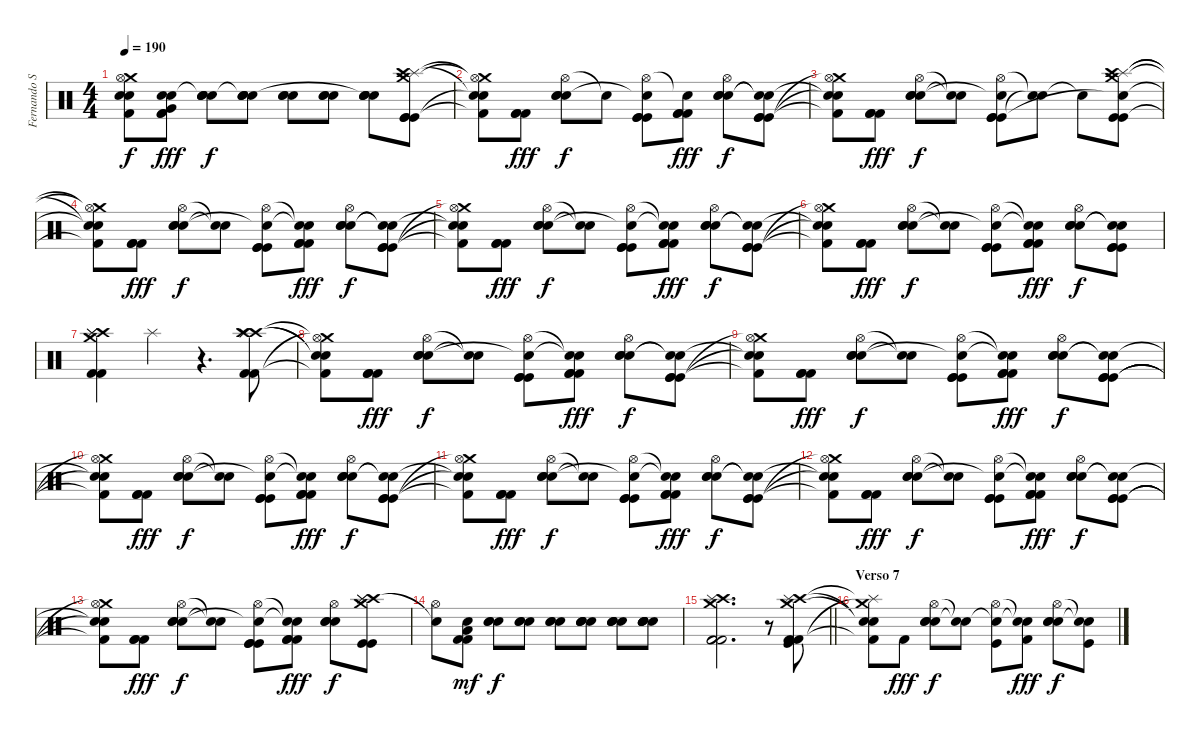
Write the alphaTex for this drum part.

\track ("Fernando Sarcella" "Fernando S") {instrument percussion}
\staff {score}
\articulation defaults
\ts (4 4)
\tempo 190
\clef neutral
\ks c
("Crash medium (hit)"{t} "Hi-Hat (open)" "Snare (hit)"{t} "Snare (hit)"{t} "Kick (hit) 2"{t}).8{dy f} ("Kick (hit) 2" "Electric Snare (hit)" "Very Low Tom (hit)" "Electric Snare (hit)" "Kick (hit) 2").8{dy fff} ("Electric Snare (hit)" "Electric Snare (hit)" "Electric Snare (hit)" "Snare (hit)"{t}).8{dy f} ("Electric Snare (hit)" "Electric Snare (hit)" "Electric Snare (hit)" "Snare (hit)"{t}).8 ("Electric Snare (hit)" "Electric Snare (hit)" "Electric Snare (hit)").8 ("Electric Snare (hit)" "Electric Snare (hit)" "Electric Snare (hit)").8 ("Electric Snare (hit)" "Electric Snare (hit)" "Electric Snare (hit)" "Snare (hit)"{t}).8 ("Crash medium (hit)" "Splash (hit)" "Crash high (hit)" "Kick (hit)" "Kick (hit)" "Kick (hit)").8 |
("Crash medium (hit)"{t} "Hi-Hat (open)"{t} "Snare (hit)"{t} "Snare (hit)"{t} "Kick (hit) 2"{t}).8 ("Kick (hit) 2" "Kick (hit) 2" "Kick (hit) 2").8{dy fff} ("Hi-Hat (open)" "Electric Snare (hit)" "Electric Snare (hit)" "Electric Snare (hit)").8{dy f} "Snare (hit)"{t}.8 ("Kick (hit)" "Hi-Hat (open)" "Snare (hit)"{t} "Kick (hit)" "Kick (hit)").8 ("Kick (hit) 2" "Snare (hit)"{t} "Kick (hit) 2" "Kick (hit) 2").8{dy fff} ("Hi-Hat (open)" "Electric Snare (hit)" "Electric Snare (hit)" "Electric Snare (hit)").8{dy f} ("Kick (hit)" "Snare (hit)"{t} "Snare (hit)"{t} "Kick (hit)" "Kick (hit)").8 |
("Crash medium (hit)"{t} "Hi-Hat (open)" "Snare (hit)"{t} "Snare (hit)"{t} "Kick (hit) 2"{t}).8 ("Kick (hit) 2" "Kick (hit) 2" "Kick (hit) 2").8{dy fff} ("Hi-Hat (open)" "Electric Snare (hit)" "Electric Snare (hit)" "Electric Snare (hit)").8{dy f} ("Snare (hit)"{t} "Snare (hit)"{t}).8 ("Kick (hit)" "Hi-Hat (open)" "Snare (hit)"{t} "Kick (hit)" "Kick (hit)").8 ("Snare (hit)"{t} "Snare (hit)"{t}).8 "Snare (hit)"{t}.8 ("Crash medium (hit)" "Splash (hit)" "Crash high (hit)" "Snare (hit)"{t} "Kick (hit)" "Kick (hit)").8 |
("Crash medium (hit)"{t} "Hi-Hat (open)"{t} "Snare (hit)"{t} "Snare (hit)"{t} "Kick (hit) 2"{t}).8 ("Kick (hit) 2" "Kick (hit) 2" "Kick (hit) 2").8{dy fff} ("Hi-Hat (open)" "Electric Snare (hit)" "Electric Snare (hit)" "Electric Snare (hit)").8{dy f} ("Snare (hit)"{t} "Snare (hit)"{t}).8 ("Kick (hit)" "Hi-Hat (open)" "Snare (hit)"{t} "Kick (hit)" "Kick (hit)").8 ("Kick (hit) 2" "Snare (hit)"{t} "Snare (hit)"{t} "Kick (hit) 2" "Kick (hit) 2").8{dy fff} ("Hi-Hat (open)" "Electric Snare (hit)" "Electric Snare (hit)" "Electric Snare (hit)").8{dy f} ("Kick (hit)" "Snare (hit)"{t} "Snare (hit)"{t} "Kick (hit)" "Kick (hit)").8 |
("Crash medium (hit)"{t} "Hi-Hat (open)" "Snare (hit)"{t} "Snare (hit)"{t} "Kick (hit) 2"{t}).8 ("Kick (hit) 2" "Kick (hit) 2" "Kick (hit) 2").8{dy fff} ("Hi-Hat (open)" "Electric Snare (hit)" "Electric Snare (hit)" "Electric Snare (hit)").8{dy f} ("Snare (hit)"{t} "Snare (hit)"{t}).8 ("Kick (hit)" "Hi-Hat (open)" "Snare (hit)"{t} "Kick (hit)" "Kick (hit)").8 ("Kick (hit) 2" "Snare (hit)"{t} "Snare (hit)"{t} "Kick (hit) 2" "Kick (hit) 2").8{dy fff} ("Hi-Hat (open)" "Electric Snare (hit)" "Electric Snare (hit)" "Electric Snare (hit)").8{dy f} ("Kick (hit)" "Snare (hit)"{t} "Snare (hit)"{t} "Kick (hit)" "Kick (hit)").8 |
("Crash medium (hit)"{t} "Hi-Hat (open)" "Snare (hit)"{t} "Snare (hit)"{t} "Kick (hit) 2"{t}).8 ("Kick (hit) 2" "Kick (hit) 2" "Kick (hit) 2").8{dy fff} ("Hi-Hat (open)" "Electric Snare (hit)" "Electric Snare (hit)" "Electric Snare (hit)").8{dy f} ("Snare (hit)"{t} "Snare (hit)"{t}).8 ("Kick (hit)" "Hi-Hat (open)" "Snare (hit)"{t} "Kick (hit)" "Kick (hit)").8 ("Kick (hit) 2" "Snare (hit)"{t} "Snare (hit)"{t} "Kick (hit) 2" "Kick (hit) 2").8{dy fff} ("Hi-Hat (open)" "Electric Snare (hit)" "Electric Snare (hit)" "Electric Snare (hit)").8{dy f} ("Kick (hit)" "Snare (hit)"{t} "Snare (hit)"{t} "Kick (hit)" "Kick (hit)").8 |
("Kick (hit) 2" "Crash high (hit)" "Crash medium (hit)" "Splash (hit)" "Kick (hit) 2" "Splash (hit)").4 "Splash (hit)".4 r.4{d} ("Kick (hit) 2" "Crash high (hit)" "Crash high (hit)" "Splash (hit)" "Kick (hit) 2" "Splash (hit)").8 |
("Crash medium (hit)"{t} "Hi-Hat (open)"{t} "Snare (hit)"{t} "Snare (hit)"{t} "Kick (hit) 2"{t}).8 ("Kick (hit) 2" "Kick (hit) 2" "Kick (hit) 2").8{dy fff} ("Hi-Hat (open)" "Electric Snare (hit)" "Electric Snare (hit)" "Electric Snare (hit)").8{dy f} ("Snare (hit)"{t} "Snare (hit)"{t}).8 ("Kick (hit)" "Hi-Hat (open)" "Snare (hit)"{t} "Kick (hit)" "Kick (hit)").8 ("Kick (hit) 2" "Snare (hit)"{t} "Snare (hit)"{t} "Kick (hit) 2" "Kick (hit) 2").8{dy fff} ("Hi-Hat (open)" "Electric Snare (hit)" "Electric Snare (hit)" "Electric Snare (hit)").8{dy f} ("Kick (hit)" "Snare (hit)"{t} "Snare (hit)"{t} "Kick (hit)" "Kick (hit)").8 |
("Crash medium (hit)"{t} "Hi-Hat (open)" "Snare (hit)"{t} "Snare (hit)"{t} "Kick (hit) 2"{t}).8 ("Kick (hit) 2" "Kick (hit) 2" "Kick (hit) 2").8{dy fff} ("Hi-Hat (open)" "Electric Snare (hit)" "Electric Snare (hit)" "Electric Snare (hit)").8{dy f} ("Snare (hit)"{t} "Snare (hit)"{t}).8 ("Kick (hit)" "Hi-Hat (open)" "Snare (hit)"{t} "Kick (hit)" "Kick (hit)").8 ("Kick (hit) 2" "Snare (hit)"{t} "Snare (hit)"{t} "Kick (hit) 2" "Kick (hit) 2").8{dy fff} ("Hi-Hat (open)" "Electric Snare (hit)" "Electric Snare (hit)" "Electric Snare (hit)").8{dy f} ("Kick (hit)" "Snare (hit)"{t} "Snare (hit)"{t} "Kick (hit)" "Kick (hit)").8 |
("Crash medium (hit)"{t} "Hi-Hat (open)" "Snare (hit)"{t} "Snare (hit)"{t} "Kick (hit) 2"{t}).8 ("Kick (hit) 2" "Kick (hit) 2" "Kick (hit) 2").8{dy fff} ("Hi-Hat (open)" "Electric Snare (hit)" "Electric Snare (hit)" "Electric Snare (hit)").8{dy f} ("Snare (hit)"{t} "Snare (hit)"{t}).8 ("Kick (hit)" "Hi-Hat (open)" "Snare (hit)"{t} "Kick (hit)" "Kick (hit)").8 ("Kick (hit) 2" "Snare (hit)"{t} "Snare (hit)"{t} "Kick (hit) 2" "Kick (hit) 2").8{dy fff} ("Hi-Hat (open)" "Electric Snare (hit)" "Electric Snare (hit)" "Electric Snare (hit)").8{dy f} ("Kick (hit)" "Snare (hit)"{t} "Snare (hit)"{t} "Kick (hit)" "Kick (hit)").8 |
("Crash medium (hit)"{t} "Hi-Hat (open)" "Snare (hit)"{t} "Snare (hit)"{t} "Kick (hit) 2"{t}).8 ("Kick (hit) 2" "Kick (hit) 2" "Kick (hit) 2").8{dy fff} ("Hi-Hat (open)" "Electric Snare (hit)" "Electric Snare (hit)" "Electric Snare (hit)").8{dy f} ("Snare (hit)"{t} "Snare (hit)"{t}).8 ("Kick (hit)" "Hi-Hat (open)" "Snare (hit)"{t} "Kick (hit)" "Kick (hit)").8 ("Kick (hit) 2" "Snare (hit)"{t} "Snare (hit)"{t} "Kick (hit) 2" "Kick (hit) 2").8{dy fff} ("Hi-Hat (open)" "Electric Snare (hit)" "Electric Snare (hit)" "Electric Snare (hit)").8{dy f} ("Kick (hit)" "Snare (hit)"{t} "Snare (hit)"{t} "Kick (hit)" "Kick (hit)").8 |
("Crash medium (hit)"{t} "Hi-Hat (open)" "Snare (hit)"{t} "Snare (hit)"{t} "Kick (hit) 2"{t}).8 ("Kick (hit) 2" "Kick (hit) 2" "Kick (hit) 2").8{dy fff} ("Hi-Hat (open)" "Electric Snare (hit)" "Electric Snare (hit)" "Electric Snare (hit)").8{dy f} ("Snare (hit)"{t} "Snare (hit)"{t}).8 ("Kick (hit)" "Hi-Hat (open)" "Snare (hit)"{t} "Kick (hit)" "Kick (hit)").8 ("Kick (hit) 2" "Snare (hit)"{t} "Snare (hit)"{t} "Kick (hit) 2" "Kick (hit) 2").8{dy fff} ("Hi-Hat (open)" "Electric Snare (hit)" "Electric Snare (hit)" "Electric Snare (hit)").8{dy f} ("Kick (hit)" "Snare (hit)"{t} "Snare (hit)"{t} "Kick (hit)" "Kick (hit)").8 |
("Crash medium (hit)"{t} "Hi-Hat (open)" "Snare (hit)"{t} "Snare (hit)"{t} "Kick (hit) 2"{t}).8 ("Kick (hit) 2" "Kick (hit) 2" "Kick (hit) 2").8{dy fff} ("Hi-Hat (open)" "Electric Snare (hit)" "Electric Snare (hit)" "Electric Snare (hit)").8{dy f} ("Snare (hit)"{t} "Snare (hit)"{t}).8 ("Kick (hit)" "Hi-Hat (open)" "Snare (hit)"{t} "Kick (hit)" "Kick (hit)").8 ("Kick (hit) 2" "Snare (hit)"{t} "Snare (hit)"{t} "Kick (hit) 2" "Kick (hit) 2").8{dy fff} ("Hi-Hat (open)" "Electric Snare (hit)" "Electric Snare (hit)" "Electric Snare (hit)").8{dy f} ("Crash high (hit)" "Splash (hit)" "Crash medium (hit)" "Splash (hit)" "Kick (hit)" "Kick (hit)").8 |
("Snare (hit)"{t} "Hi-Hat (open)").8 ("Kick (hit) 2" "Electric Snare (hit)" "Low Tom (hit)" "Kick (hit) 2").8{dy mf} ("Electric Snare (hit)" "Electric Snare (hit)" "Electric Snare (hit)").8{dy f} ("Electric Snare (hit)" "Electric Snare (hit)" "Electric Snare (hit)").8 ("Electric Snare (hit)" "Electric Snare (hit)" "Electric Snare (hit)").8 ("Electric Snare (hit)" "Electric Snare (hit)" "Electric Snare (hit)" "Electric Snare (hit)").8 ("Electric Snare (hit)" "Electric Snare (hit)" "Electric Snare (hit)" "Electric Snare (hit)").8 ("Electric Snare (hit)" "Electric Snare (hit)" "Electric Snare (hit)" "Electric Snare (hit)" "Electric Snare (hit)").8 |
\barLineRight lightlight
("Kick (hit) 2" "Crash high (hit)" "Crash medium (hit)" "Splash (hit)" "Kick (hit) 2" "Kick (hit) 2").2{d} r.8 ("Kick (hit) 2" "Crash high (hit)" "Crash medium (hit)" "Splash (hit)" "Kick (hit) 2" "Kick (hit)").8 |
\section ("" "Verso 7")
("Crash medium (hit)"{t} "Splash (hit)"{t} "Snare (hit)"{t} "Snare (hit)"{t} "Kick (hit) 2"{t}).8 "Kick (hit) 2".8{dy fff} ("Hi-Hat (open)" "Electric Snare (hit)" "Electric Snare (hit)" "Electric Snare (hit)").8{dy f} ("Snare (hit)"{t} "Snare (hit)"{t}).8 ("Hi-Hat (open)" "Snare (hit)"{t} "Kick (hit)").8 ("Snare (hit)"{t} "Snare (hit)"{t} "Kick (hit) 2").8{dy fff} ("Hi-Hat (open)" "Electric Snare (hit)" "Electric Snare (hit)" "Electric Snare (hit)").8{dy f} ("Snare (hit)"{t} "Snare (hit)"{t} "Kick (hit)").8
